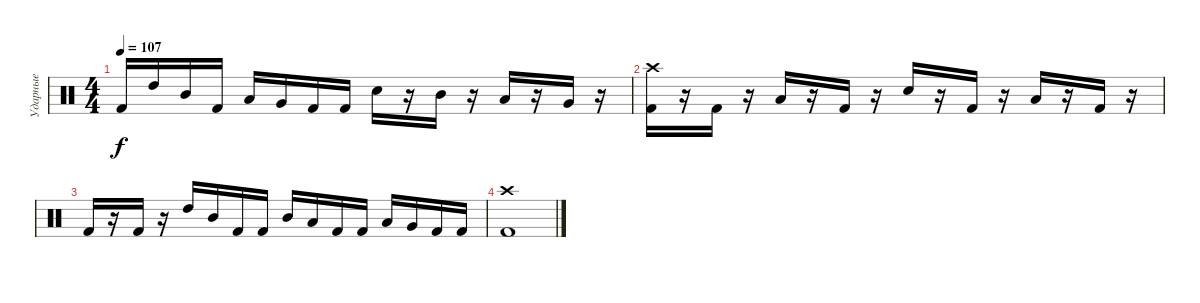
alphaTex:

\track ("Ударные" "Ударные") {instrument percussion}
\staff {score}
\articulation defaults
\ts (4 4)
\tempo 107
\clef neutral
\ks c "Kick (hit) 2".16{dy f} "High Tom (hit)".16 "Mid Tom (hit)".16 "Kick (hit) 2".16 "Low Tom (hit)".16 "Very Low Tom (hit)".16 "Kick (hit) 2".16 "Kick (hit) 2".16 "Electric Snare (hit)".16
r.16 "Mid Tom (hit)".16 r.16 "Low Tom (hit)".16 r.16 "Very Low Tom (hit)".16 r.16 |
("Kick (hit) 2" "Crash high (hit)").16 r.16 "Kick (hit) 2".16 r.16 "Low Tom (hit)".16 r.16 "Kick (hit) 2".16 r.16 "Electric Snare (hit)".16 r.16 "Kick (hit) 2".16 r.16 "Low Tom (hit)".16 r.16 "Kick (hit) 2".16 r.16 |
"Kick (hit) 2".16 r.16 "Kick (hit) 2".16 r.16 "High Tom (hit)".16 "Mid Tom (hit)".16 "Kick (hit) 2".16 "Kick (hit) 2".16 "Mid Tom (hit)".16 "Low Tom (hit)".16 "Kick (hit) 2".16 "Kick (hit) 2".16 "Low Tom (hit)".16 "Very Low Tom (hit)".16 "Kick (hit) 2".16 "Kick (hit) 2".16 |
("Kick (hit) 2" "Crash high (hit)").1
